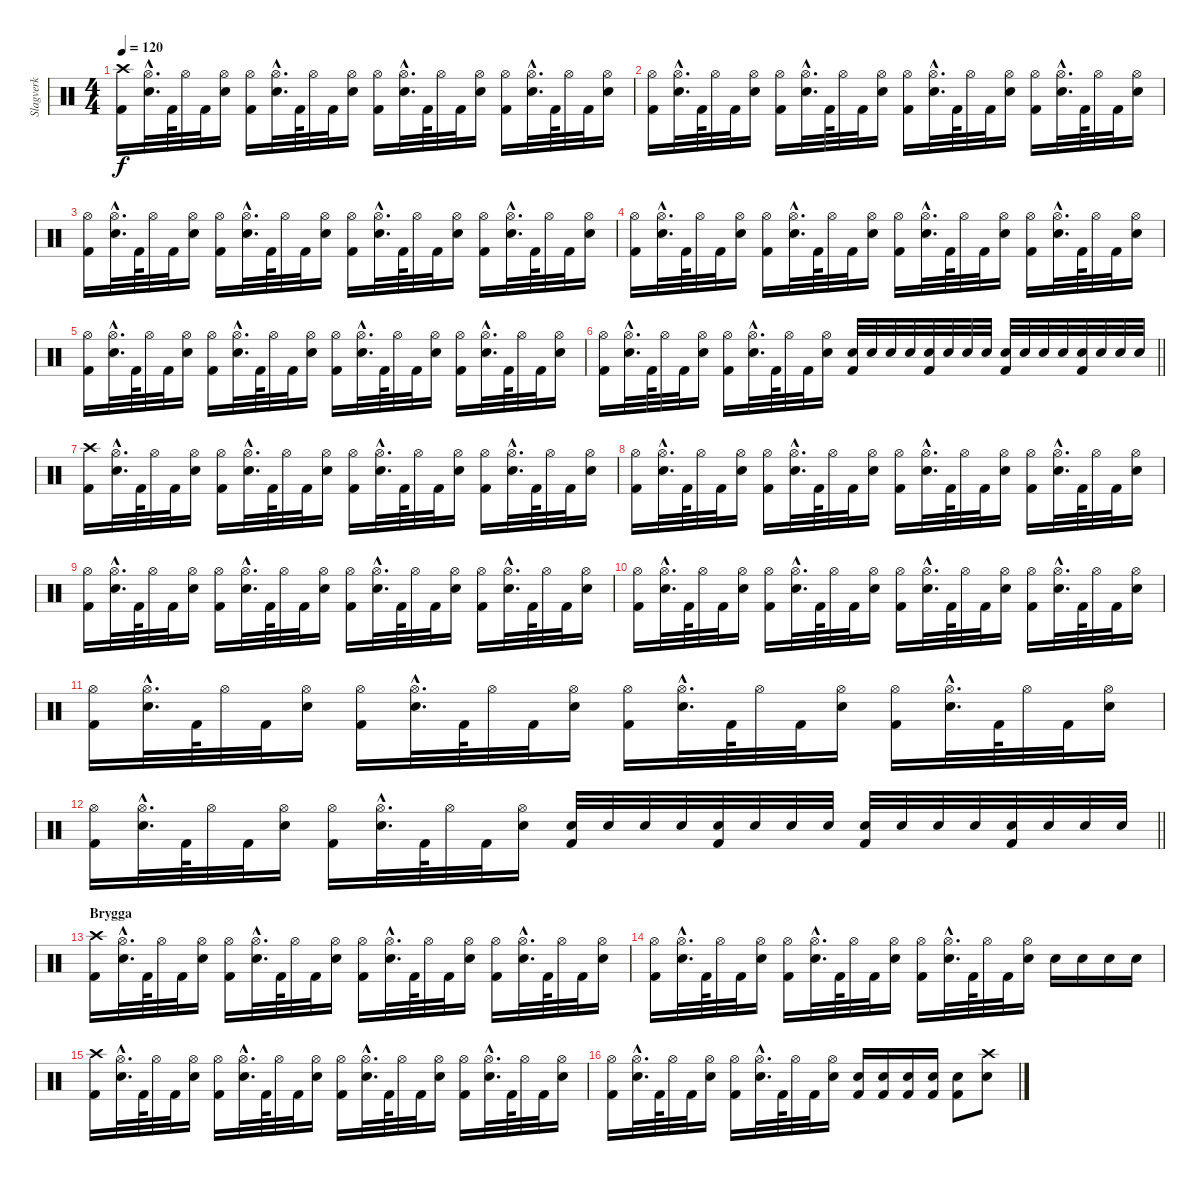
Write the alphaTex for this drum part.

\track ("Slagverk" "Slagverk") {instrument percussion}
\staff {score}
\articulation defaults
\ts (4 4)
\tempo 120
\clef neutral
\ks c
("Crash high (hit)" "Kick (hit) 2").16{dy f} ("Hi-Hat (open)"{hac} "Electric Snare (hit)"{hac}).32{d} "Kick (hit) 2".64 "Hi-Hat (open)".32 "Kick (hit) 2".32 ("Hi-Hat (open)" "Electric Snare (hit)").16 ("Hi-Hat (open)" "Kick (hit) 2").16 ("Hi-Hat (open)"{hac} "Electric Snare (hit)"{hac}).32{d} "Kick (hit) 2".64 "Hi-Hat (open)".32 "Kick (hit) 2".32 ("Hi-Hat (open)" "Electric Snare (hit)").16 ("Hi-Hat (open)" "Kick (hit) 2").16 ("Hi-Hat (open)"{hac} "Electric Snare (hit)"{hac}).32{d} "Kick (hit) 2".64 "Hi-Hat (open)".32 "Kick (hit) 2".32 ("Hi-Hat (open)" "Electric Snare (hit)").16 ("Hi-Hat (open)" "Kick (hit) 2").16 ("Hi-Hat (open)"{hac} "Electric Snare (hit)"{hac}).32{d} "Kick (hit) 2".64 "Hi-Hat (open)".32 "Kick (hit) 2".32 ("Hi-Hat (open)" "Electric Snare (hit)").16 |
("Hi-Hat (open)" "Kick (hit) 2").16 ("Hi-Hat (open)"{hac} "Electric Snare (hit)"{hac}).32{d} "Kick (hit) 2".64 "Hi-Hat (open)".32 "Kick (hit) 2".32 ("Hi-Hat (open)" "Electric Snare (hit)").16 ("Hi-Hat (open)" "Kick (hit) 2").16 ("Hi-Hat (open)"{hac} "Electric Snare (hit)"{hac}).32{d} "Kick (hit) 2".64 "Hi-Hat (open)".32 "Kick (hit) 2".32 ("Hi-Hat (open)" "Electric Snare (hit)").16 ("Hi-Hat (open)" "Kick (hit) 2").16 ("Hi-Hat (open)"{hac} "Electric Snare (hit)"{hac}).32{d} "Kick (hit) 2".64 "Hi-Hat (open)".32 "Kick (hit) 2".32 ("Hi-Hat (open)" "Electric Snare (hit)").16 ("Hi-Hat (open)" "Kick (hit) 2").16 ("Hi-Hat (open)"{hac} "Electric Snare (hit)"{hac}).32{d} "Kick (hit) 2".64 "Hi-Hat (open)".32 "Kick (hit) 2".32 ("Hi-Hat (open)" "Electric Snare (hit)").16 |
("Hi-Hat (open)" "Kick (hit) 2").16 ("Hi-Hat (open)"{hac} "Electric Snare (hit)"{hac}).32{d} "Kick (hit) 2".64 "Hi-Hat (open)".32 "Kick (hit) 2".32 ("Hi-Hat (open)" "Electric Snare (hit)").16 ("Hi-Hat (open)" "Kick (hit) 2").16 ("Hi-Hat (open)"{hac} "Electric Snare (hit)"{hac}).32{d} "Kick (hit) 2".64 "Hi-Hat (open)".32 "Kick (hit) 2".32 ("Hi-Hat (open)" "Electric Snare (hit)").16 ("Hi-Hat (open)" "Kick (hit) 2").16 ("Hi-Hat (open)"{hac} "Electric Snare (hit)"{hac}).32{d} "Kick (hit) 2".64 "Hi-Hat (open)".32 "Kick (hit) 2".32 ("Hi-Hat (open)" "Electric Snare (hit)").16 ("Hi-Hat (open)" "Kick (hit) 2").16 ("Hi-Hat (open)"{hac} "Electric Snare (hit)"{hac}).32{d} "Kick (hit) 2".64 "Hi-Hat (open)".32 "Kick (hit) 2".32 ("Hi-Hat (open)" "Electric Snare (hit)").16 |
("Hi-Hat (open)" "Kick (hit) 2").16 ("Hi-Hat (open)"{hac} "Electric Snare (hit)"{hac}).32{d} "Kick (hit) 2".64 "Hi-Hat (open)".32 "Kick (hit) 2".32 ("Hi-Hat (open)" "Electric Snare (hit)").16 ("Hi-Hat (open)" "Kick (hit) 2").16 ("Hi-Hat (open)"{hac} "Electric Snare (hit)"{hac}).32{d} "Kick (hit) 2".64 "Hi-Hat (open)".32 "Kick (hit) 2".32 ("Hi-Hat (open)" "Electric Snare (hit)").16 ("Hi-Hat (open)" "Kick (hit) 2").16 ("Hi-Hat (open)"{hac} "Electric Snare (hit)"{hac}).32{d} "Kick (hit) 2".64 "Hi-Hat (open)".32 "Kick (hit) 2".32 ("Hi-Hat (open)" "Electric Snare (hit)").16 ("Hi-Hat (open)" "Kick (hit) 2").16 ("Hi-Hat (open)"{hac} "Electric Snare (hit)"{hac}).32{d} "Kick (hit) 2".64 "Hi-Hat (open)".32 "Kick (hit) 2".32 ("Hi-Hat (open)" "Electric Snare (hit)").16 |
("Hi-Hat (open)" "Kick (hit) 2").16 ("Hi-Hat (open)"{hac} "Electric Snare (hit)"{hac}).32{d} "Kick (hit) 2".64 "Hi-Hat (open)".32 "Kick (hit) 2".32 ("Hi-Hat (open)" "Electric Snare (hit)").16 ("Hi-Hat (open)" "Kick (hit) 2").16 ("Hi-Hat (open)"{hac} "Electric Snare (hit)"{hac}).32{d} "Kick (hit) 2".64 "Hi-Hat (open)".32 "Kick (hit) 2".32 ("Hi-Hat (open)" "Electric Snare (hit)").16 ("Hi-Hat (open)" "Kick (hit) 2").16 ("Hi-Hat (open)"{hac} "Electric Snare (hit)"{hac}).32{d} "Kick (hit) 2".64 "Hi-Hat (open)".32 "Kick (hit) 2".32 ("Hi-Hat (open)" "Electric Snare (hit)").16 ("Hi-Hat (open)" "Kick (hit) 2").16 ("Hi-Hat (open)"{hac} "Electric Snare (hit)"{hac}).32{d} "Kick (hit) 2".64 "Hi-Hat (open)".32 "Kick (hit) 2".32 ("Hi-Hat (open)" "Electric Snare (hit)").16 |
\barLineRight lightlight
("Hi-Hat (open)" "Kick (hit) 2").16 ("Hi-Hat (open)"{hac} "Electric Snare (hit)"{hac}).32{d} "Kick (hit) 2".64 "Hi-Hat (open)".32 "Kick (hit) 2".32 ("Hi-Hat (open)" "Electric Snare (hit)").16 ("Hi-Hat (open)" "Kick (hit) 2").16 ("Hi-Hat (open)"{hac} "Electric Snare (hit)"{hac}).32{d} "Kick (hit) 2".64 "Hi-Hat (open)".32 "Kick (hit) 2".32 ("Hi-Hat (open)" "Electric Snare (hit)").16 ("Electric Snare (hit)" "Kick (hit) 2").32 "Electric Snare (hit)".32 "Electric Snare (hit)".32 "Electric Snare (hit)".32 ("Electric Snare (hit)" "Kick (hit) 2").32 "Electric Snare (hit)".32 "Electric Snare (hit)".32 "Electric Snare (hit)".32 ("Electric Snare (hit)" "Kick (hit) 2").32 "Electric Snare (hit)".32 "Electric Snare (hit)".32 "Electric Snare (hit)".32 ("Electric Snare (hit)" "Kick (hit) 2").32 "Electric Snare (hit)".32 "Electric Snare (hit)".32 "Electric Snare (hit)".32 |
("Crash high (hit)" "Kick (hit) 2").16 ("Hi-Hat (open)"{hac} "Electric Snare (hit)"{hac}).32{d} "Kick (hit) 2".64 "Hi-Hat (open)".32 "Kick (hit) 2".32 ("Hi-Hat (open)" "Electric Snare (hit)").16 ("Hi-Hat (open)" "Kick (hit) 2").16 ("Hi-Hat (open)"{hac} "Electric Snare (hit)"{hac}).32{d} "Kick (hit) 2".64 "Hi-Hat (open)".32 "Kick (hit) 2".32 ("Hi-Hat (open)" "Electric Snare (hit)").16 ("Hi-Hat (open)" "Kick (hit) 2").16 ("Hi-Hat (open)"{hac} "Electric Snare (hit)"{hac}).32{d} "Kick (hit) 2".64 "Hi-Hat (open)".32 "Kick (hit) 2".32 ("Hi-Hat (open)" "Electric Snare (hit)").16 ("Hi-Hat (open)" "Kick (hit) 2").16 ("Hi-Hat (open)"{hac} "Electric Snare (hit)"{hac}).32{d} "Kick (hit) 2".64 "Hi-Hat (open)".32 "Kick (hit) 2".32 ("Hi-Hat (open)" "Electric Snare (hit)").16 |
("Hi-Hat (open)" "Kick (hit) 2").16 ("Hi-Hat (open)"{hac} "Electric Snare (hit)"{hac}).32{d} "Kick (hit) 2".64 "Hi-Hat (open)".32 "Kick (hit) 2".32 ("Hi-Hat (open)" "Electric Snare (hit)").16 ("Hi-Hat (open)" "Kick (hit) 2").16 ("Hi-Hat (open)"{hac} "Electric Snare (hit)"{hac}).32{d} "Kick (hit) 2".64 "Hi-Hat (open)".32 "Kick (hit) 2".32 ("Hi-Hat (open)" "Electric Snare (hit)").16 ("Hi-Hat (open)" "Kick (hit) 2").16 ("Hi-Hat (open)"{hac} "Electric Snare (hit)"{hac}).32{d} "Kick (hit) 2".64 "Hi-Hat (open)".32 "Kick (hit) 2".32 ("Hi-Hat (open)" "Electric Snare (hit)").16 ("Hi-Hat (open)" "Kick (hit) 2").16 ("Hi-Hat (open)"{hac} "Electric Snare (hit)"{hac}).32{d} "Kick (hit) 2".64 "Hi-Hat (open)".32 "Kick (hit) 2".32 ("Hi-Hat (open)" "Electric Snare (hit)").16 |
("Hi-Hat (open)" "Kick (hit) 2").16 ("Hi-Hat (open)"{hac} "Electric Snare (hit)"{hac}).32{d} "Kick (hit) 2".64 "Hi-Hat (open)".32 "Kick (hit) 2".32 ("Hi-Hat (open)" "Electric Snare (hit)").16 ("Hi-Hat (open)" "Kick (hit) 2").16 ("Hi-Hat (open)"{hac} "Electric Snare (hit)"{hac}).32{d} "Kick (hit) 2".64 "Hi-Hat (open)".32 "Kick (hit) 2".32 ("Hi-Hat (open)" "Electric Snare (hit)").16 ("Hi-Hat (open)" "Kick (hit) 2").16 ("Hi-Hat (open)"{hac} "Electric Snare (hit)"{hac}).32{d} "Kick (hit) 2".64 "Hi-Hat (open)".32 "Kick (hit) 2".32 ("Hi-Hat (open)" "Electric Snare (hit)").16 ("Hi-Hat (open)" "Kick (hit) 2").16 ("Hi-Hat (open)"{hac} "Electric Snare (hit)"{hac}).32{d} "Kick (hit) 2".64 "Hi-Hat (open)".32 "Kick (hit) 2".32 ("Hi-Hat (open)" "Electric Snare (hit)").16 |
("Hi-Hat (open)" "Kick (hit) 2").16 ("Hi-Hat (open)"{hac} "Electric Snare (hit)"{hac}).32{d} "Kick (hit) 2".64 "Hi-Hat (open)".32 "Kick (hit) 2".32 ("Hi-Hat (open)" "Electric Snare (hit)").16 ("Hi-Hat (open)" "Kick (hit) 2").16 ("Hi-Hat (open)"{hac} "Electric Snare (hit)"{hac}).32{d} "Kick (hit) 2".64 "Hi-Hat (open)".32 "Kick (hit) 2".32 ("Hi-Hat (open)" "Electric Snare (hit)").16 ("Hi-Hat (open)" "Kick (hit) 2").16 ("Hi-Hat (open)"{hac} "Electric Snare (hit)"{hac}).32{d} "Kick (hit) 2".64 "Hi-Hat (open)".32 "Kick (hit) 2".32 ("Hi-Hat (open)" "Electric Snare (hit)").16 ("Hi-Hat (open)" "Kick (hit) 2").16 ("Hi-Hat (open)"{hac} "Electric Snare (hit)"{hac}).32{d} "Kick (hit) 2".64 "Hi-Hat (open)".32 "Kick (hit) 2".32 ("Hi-Hat (open)" "Electric Snare (hit)").16 |
("Hi-Hat (open)" "Kick (hit) 2").16 ("Hi-Hat (open)"{hac} "Electric Snare (hit)"{hac}).32{d} "Kick (hit) 2".64 "Hi-Hat (open)".32 "Kick (hit) 2".32 ("Hi-Hat (open)" "Electric Snare (hit)").16 ("Hi-Hat (open)" "Kick (hit) 2").16 ("Hi-Hat (open)"{hac} "Electric Snare (hit)"{hac}).32{d} "Kick (hit) 2".64 "Hi-Hat (open)".32 "Kick (hit) 2".32 ("Hi-Hat (open)" "Electric Snare (hit)").16 ("Hi-Hat (open)" "Kick (hit) 2").16 ("Hi-Hat (open)"{hac} "Electric Snare (hit)"{hac}).32{d} "Kick (hit) 2".64 "Hi-Hat (open)".32 "Kick (hit) 2".32 ("Hi-Hat (open)" "Electric Snare (hit)").16 ("Hi-Hat (open)" "Kick (hit) 2").16 ("Hi-Hat (open)"{hac} "Electric Snare (hit)"{hac}).32{d} "Kick (hit) 2".64 "Hi-Hat (open)".32 "Kick (hit) 2".32 ("Hi-Hat (open)" "Electric Snare (hit)").16 |
\barLineRight lightlight
("Hi-Hat (open)" "Kick (hit) 2").16 ("Hi-Hat (open)"{hac} "Electric Snare (hit)"{hac}).32{d} "Kick (hit) 2".64 "Hi-Hat (open)".32 "Kick (hit) 2".32 ("Hi-Hat (open)" "Electric Snare (hit)").16 ("Hi-Hat (open)" "Kick (hit) 2").16 ("Hi-Hat (open)"{hac} "Electric Snare (hit)"{hac}).32{d} "Kick (hit) 2".64 "Hi-Hat (open)".32 "Kick (hit) 2".32 ("Hi-Hat (open)" "Electric Snare (hit)").16 ("Electric Snare (hit)" "Kick (hit) 2").32 "Electric Snare (hit)".32 "Electric Snare (hit)".32 "Electric Snare (hit)".32 ("Electric Snare (hit)" "Kick (hit) 2").32 "Electric Snare (hit)".32 "Electric Snare (hit)".32 "Electric Snare (hit)".32 ("Electric Snare (hit)" "Kick (hit) 2").32 "Electric Snare (hit)".32 "Electric Snare (hit)".32 "Electric Snare (hit)".32 ("Electric Snare (hit)" "Kick (hit) 2").32 "Electric Snare (hit)".32 "Electric Snare (hit)".32 "Electric Snare (hit)".32 |
\section ("" "Brygga")
("Crash high (hit)" "Kick (hit) 2").16 ("Hi-Hat (open)"{hac} "Electric Snare (hit)"{hac}).32{d} "Kick (hit) 2".64 "Hi-Hat (open)".32 "Kick (hit) 2".32 ("Hi-Hat (open)" "Electric Snare (hit)").16 ("Hi-Hat (open)" "Kick (hit) 2").16 ("Hi-Hat (open)"{hac} "Electric Snare (hit)"{hac}).32{d} "Kick (hit) 2".64 "Hi-Hat (open)".32 "Kick (hit) 2".32 ("Hi-Hat (open)" "Electric Snare (hit)").16 ("Hi-Hat (open)" "Kick (hit) 2").16 ("Hi-Hat (open)"{hac} "Electric Snare (hit)"{hac}).32{d} "Kick (hit) 2".64 "Hi-Hat (open)".32 "Kick (hit) 2".32 ("Hi-Hat (open)" "Electric Snare (hit)").16 ("Hi-Hat (open)" "Kick (hit) 2").16 ("Hi-Hat (open)"{hac} "Electric Snare (hit)"{hac}).32{d} "Kick (hit) 2".64 "Hi-Hat (open)".32 "Kick (hit) 2".32 ("Hi-Hat (open)" "Electric Snare (hit)").16 |
("Hi-Hat (open)" "Kick (hit) 2").16 ("Hi-Hat (open)"{hac} "Electric Snare (hit)"{hac}).32{d} "Kick (hit) 2".64 "Hi-Hat (open)".32 "Kick (hit) 2".32 ("Hi-Hat (open)" "Electric Snare (hit)").16 ("Hi-Hat (open)" "Kick (hit) 2").16 ("Hi-Hat (open)"{hac} "Electric Snare (hit)"{hac}).32{d} "Kick (hit) 2".64 "Hi-Hat (open)".32 "Kick (hit) 2".32 ("Hi-Hat (open)" "Electric Snare (hit)").16 ("Hi-Hat (open)" "Kick (hit) 2").16 ("Hi-Hat (open)"{hac} "Electric Snare (hit)"{hac}).32{d} "Kick (hit) 2".64 "Hi-Hat (open)".32 "Kick (hit) 2".32 ("Hi-Hat (open)" "Electric Snare (hit)").16 "Electric Snare (hit)".16 "Electric Snare (hit)".16 "Electric Snare (hit)".16 "Electric Snare (hit)".16 |
("Crash high (hit)" "Kick (hit) 2").16 ("Hi-Hat (open)"{hac} "Electric Snare (hit)"{hac}).32{d} "Kick (hit) 2".64 "Hi-Hat (open)".32 "Kick (hit) 2".32 ("Hi-Hat (open)" "Electric Snare (hit)").16 ("Hi-Hat (open)" "Kick (hit) 2").16 ("Hi-Hat (open)"{hac} "Electric Snare (hit)"{hac}).32{d} "Kick (hit) 2".64 "Hi-Hat (open)".32 "Kick (hit) 2".32 ("Hi-Hat (open)" "Electric Snare (hit)").16 ("Hi-Hat (open)" "Kick (hit) 2").16 ("Hi-Hat (open)"{hac} "Electric Snare (hit)"{hac}).32{d} "Kick (hit) 2".64 "Hi-Hat (open)".32 "Kick (hit) 2".32 ("Hi-Hat (open)" "Electric Snare (hit)").16 ("Hi-Hat (open)" "Kick (hit) 2").16 ("Hi-Hat (open)"{hac} "Electric Snare (hit)"{hac}).32{d} "Kick (hit) 2".64 "Hi-Hat (open)".32 "Kick (hit) 2".32 ("Hi-Hat (open)" "Electric Snare (hit)").16 |
("Hi-Hat (open)" "Kick (hit) 2").16 ("Hi-Hat (open)"{hac} "Electric Snare (hit)"{hac}).32{d} "Kick (hit) 2".64 "Hi-Hat (open)".32 "Kick (hit) 2".32 ("Hi-Hat (open)" "Electric Snare (hit)").16 ("Hi-Hat (open)" "Kick (hit) 2").16 ("Hi-Hat (open)"{hac} "Electric Snare (hit)"{hac}).32{d} "Kick (hit) 2".64 "Hi-Hat (open)".32 "Kick (hit) 2".32 ("Hi-Hat (open)" "Electric Snare (hit)").16 ("Electric Snare (hit)" "Kick (hit) 2").16 ("Electric Snare (hit)" "Kick (hit) 2").16 ("Electric Snare (hit)" "Kick (hit) 2").16 ("Electric Snare (hit)" "Kick (hit) 2").16 ("Electric Snare (hit)" "Kick (hit) 2").8 ("Crash high (hit)" "Electric Snare (hit)").8
